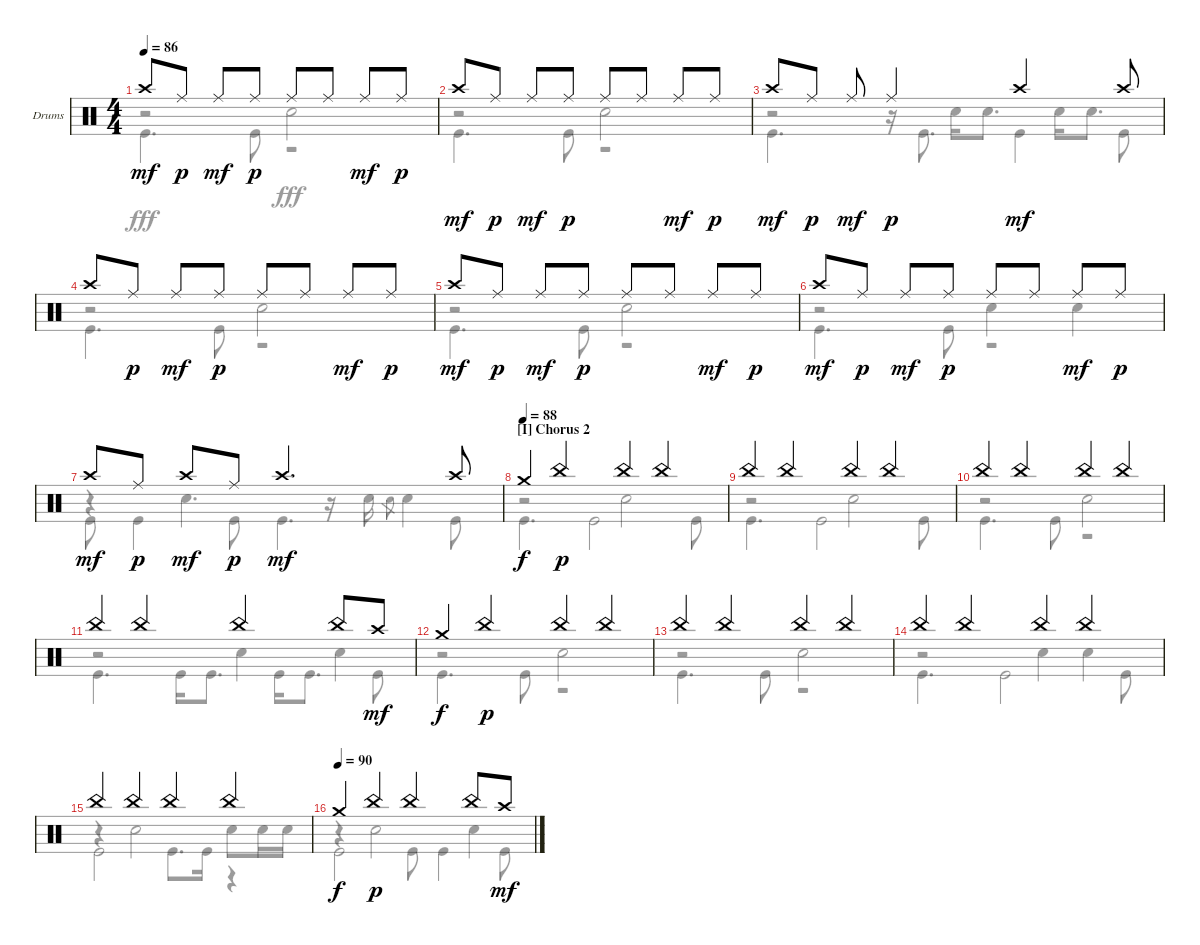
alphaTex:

\defaultSystemsLayout 4
\bracketExtendMode groupsimilarinstruments
\firstSystemTrackNameOrientation horizontal
\otherSystemsTrackNameOrientation horizontal
\track ("Drumkit" "Drums") {instrument percussion}
\staff {score}
\articulation defaults
\voice
\ts (4 4)
\tempo 86
\clef neutral
\ks c "Crash high (hit)".8{dy mf} "Ride (middle)".8{dy p} "Ride (middle)".8{dy mf} "Ride (middle)".8{dy p} "Ride (middle)".8 "Ride (middle)".8 "Ride (middle)".8{dy mf} "Ride (middle)".8{dy p}
|
"Crash high (hit)".8{dy mf} "Ride (middle)".8{dy p} "Ride (middle)".8{dy mf} "Ride (middle)".8{dy p} "Ride (middle)".8 "Ride (middle)".8 "Ride (middle)".8{dy mf} "Ride (middle)".8{dy p} |
"Crash high (hit)".8{dy mf} "Ride (middle)".8{dy p} "Ride (middle)".8{dy mf} "Ride (middle)".4{dy p} "Crash high (hit)".4{dy mf} "Crash high (hit)".8 |
"Crash high (hit)".8 "Ride (middle)".8{dy p} "Ride (middle)".8{dy mf} "Ride (middle)".8{dy p} "Ride (middle)".8 "Ride (middle)".8 "Ride (middle)".8{dy mf} "Ride (middle)".8{dy p} |
"Crash high (hit)".8{dy mf} "Ride (middle)".8{dy p} "Ride (middle)".8{dy mf} "Ride (middle)".8{dy p} "Ride (middle)".8 "Ride (middle)".8 "Ride (middle)".8{dy mf} "Ride (middle)".8{dy p} |
"Crash high (hit)".8{dy mf} "Ride (middle)".8{dy p} "Ride (middle)".8{dy mf} "Ride (middle)".8{dy p} "Ride (middle)".8 "Ride (middle)".8 "Ride (middle)".8{dy mf} "Ride (middle)".8{dy p} |
"Crash high (hit)".8{dy mf} "Ride (middle)".8{dy p} "Crash high (hit)".8{dy mf} "Ride (middle)".8{dy p} "Crash high (hit)".4{d dy mf} "Crash high (hit)".8 |
\section ("I" "Chorus 2")
\tempo (88)
"Crash medium (hit)".4{dy f} "China (hit)".4{dy p} "China (hit)".4 "China (hit)".4 |
"China (hit)".4 "China (hit)".4 "China (hit)".4 "China (hit)".4 |
"China (hit)".4 "China (hit)".4 "China (hit)".4 "China (hit)".4 |
"China (hit)".4 "China (hit)".4 "China (hit)".4 "China (hit)".8 "Crash high (hit)".8{dy mf} |
"Crash medium (hit)".4{dy f} "China (hit)".4{dy p} "China (hit)".4 "China (hit)".4 |
"China (hit)".4 "China (hit)".4 "China (hit)".4 "China (hit)".4 |
"China (hit)".4 "China (hit)".4 "China (hit)".4 "China (hit)".4 |
"China (hit)".4 "China (hit)".4 "China (hit)".4 "China (hit)".4 |
\tempo (90)
"Crash medium (hit)".4{dy f} "China (hit)".4{dy p} "China (hit)".4 "China (hit)".8 "Crash high (hit)".8{dy mf}
\voice
\clef neutral
\ottava regular
\simile none
\ks c
r.2{dy fff} "Snare (hit) 2".2 |
r.2 "Snare (hit) 2".2 |
r.2 "Snare (hit) 2".16 "Snare (hit) 2".8{d} "Snare (hit) 2".16 "Snare (hit) 2".8{d} |
r.2 "Snare (hit) 2".2 |
r.2 "Snare (hit) 2".2 |
r.2 "Snare (hit) 2".4 "Snare (hit) 2".4 |
r.4 "Snare (hit) 2".4{d} r.16 "Snare (hit) 2".16 "Snare (hit) 2".8{gr} "Snare (hit) 2".4 |
r.2 "Snare (hit) 2".2 |
r.2 "Snare (hit) 2".2 |
r.2 "Snare (hit) 2".2 |
r.2 "Snare (hit) 2".4 "Snare (hit) 2".4 |
r.2 "Snare (hit) 2".2 |
r.2 "Snare (hit) 2".2 |
r.2 "Snare (hit) 2".4 "Snare (hit) 2".4 |
r.4 "Snare (hit) 2".2 "Snare (hit) 2".8 "Snare (hit) 2".16 "Snare (hit) 2".16 |
r.4 "Snare (hit) 2".2 "Snare (hit) 2".4
\voice
\clef neutral
\ottava regular
\simile none
\ks c "Kick (hit)".4{d dy fff} "Kick (hit)".8
r.2 |
"Kick (hit)".4{d} "Kick (hit)".8 r.2 |
"Kick (hit)".4{d} r.16 "Kick (hit)".8{d} "Kick (hit)".4 "Kick (hit)".8 |
"Kick (hit)".4{d} "Kick (hit)".8 r.2 |
"Kick (hit)".4{d} "Kick (hit)".8 r.2 |
"Kick (hit)".4{d} "Kick (hit)".8 r.2 |
"Kick (hit)".8 "Kick (hit)".4 "Kick (hit)".8 "Kick (hit)".4{d} "Kick (hit)".8 |
"Kick (hit)".4{d} "Kick (hit)".2 "Kick (hit)".8 |
"Kick (hit)".4{d} "Kick (hit)".2 "Kick (hit)".8 |
"Kick (hit)".4{d} "Kick (hit)".8 r.2 |
"Kick (hit)".4{d} "Kick (hit)".16 "Kick (hit)".8{d} "Kick (hit)".16 "Kick (hit)".8{d} "Kick (hit)".8 |
"Kick (hit)".4{d} "Kick (hit)".8 r.2 |
"Kick (hit)".4{d} "Kick (hit)".8 r.2 |
"Kick (hit)".4{d} "Kick (hit)".2 "Kick (hit)".8 |
"Kick (hit)".2 "Kick (hit)".8{d} "Kick (hit)".16 r.4 |
"Kick (hit)".2 "Kick (hit)".8 "Kick (hit)".4 "Kick (hit)".8
